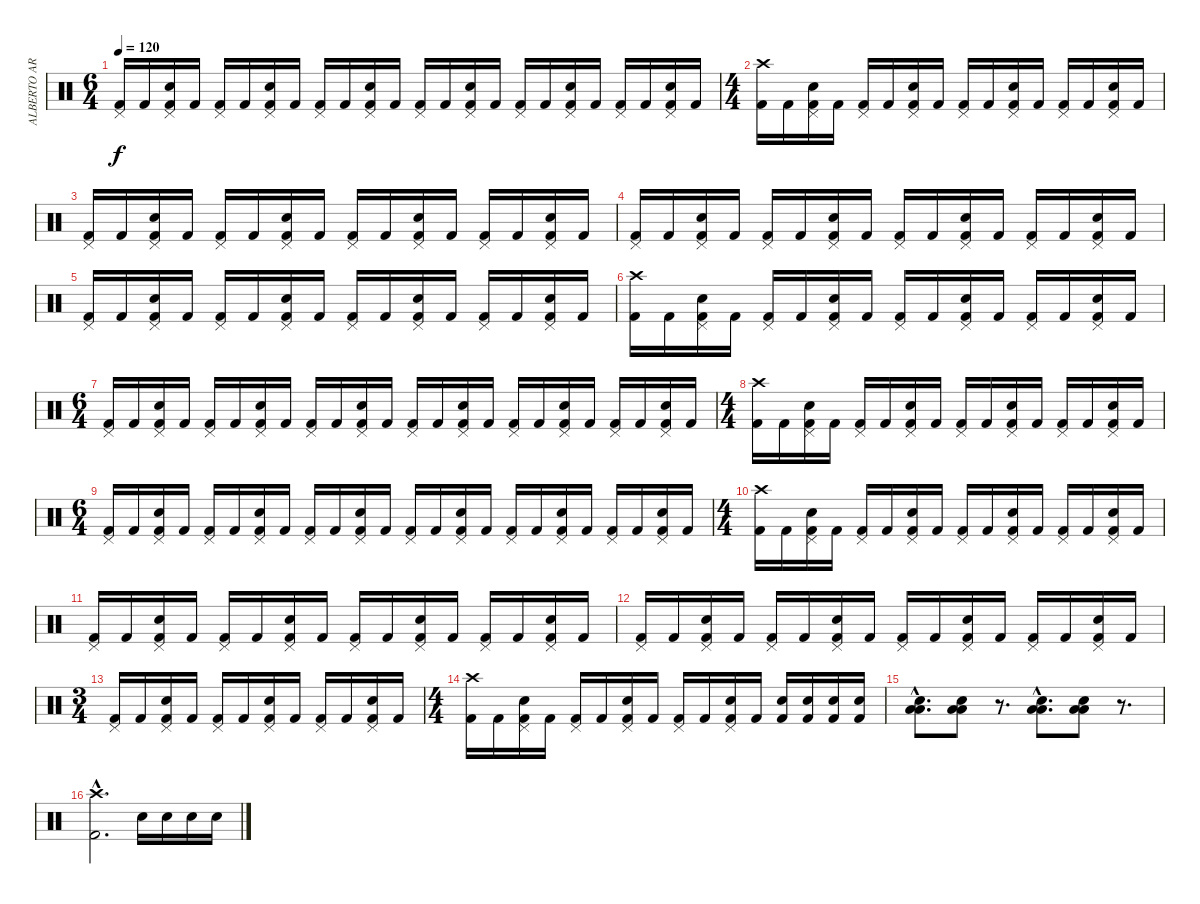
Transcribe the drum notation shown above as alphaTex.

\track ("ALBERTO ARDINES" "ALBERTO AR") {instrument percussion}
\staff {score}
\articulation defaults
\ts (6 4)
\tempo 120
\clef neutral
\ks c
("Pedal Hi-Hat (hit)" "Kick (hit) 2").16{dy f} "Kick (hit) 2".16 ("Pedal Hi-Hat (hit)" "Electric Snare (hit)" "Kick (hit) 2").16 "Kick (hit) 2".16 ("Pedal Hi-Hat (hit)" "Kick (hit) 2").16 "Kick (hit) 2".16 ("Pedal Hi-Hat (hit)" "Electric Snare (hit)" "Kick (hit) 2").16 "Kick (hit) 2".16 ("Pedal Hi-Hat (hit)" "Kick (hit) 2").16 "Kick (hit) 2".16 ("Pedal Hi-Hat (hit)" "Electric Snare (hit)" "Kick (hit) 2").16 "Kick (hit) 2".16 ("Pedal Hi-Hat (hit)" "Kick (hit) 2").16 "Kick (hit) 2".16 ("Pedal Hi-Hat (hit)" "Electric Snare (hit)" "Kick (hit) 2").16 "Kick (hit) 2".16 ("Pedal Hi-Hat (hit)" "Kick (hit) 2").16 "Kick (hit) 2".16 ("Pedal Hi-Hat (hit)" "Electric Snare (hit)" "Kick (hit) 2").16 "Kick (hit) 2".16 ("Pedal Hi-Hat (hit)" "Kick (hit) 2").16 "Kick (hit) 2".16 ("Pedal Hi-Hat (hit)" "Electric Snare (hit)" "Kick (hit) 2").16 "Kick (hit) 2".16 |
\ts (4 4)
("Crash high (hit)" "Kick (hit) 2").16 "Kick (hit) 2".16 ("Pedal Hi-Hat (hit)" "Electric Snare (hit)" "Kick (hit) 2").16 "Kick (hit) 2".16 ("Pedal Hi-Hat (hit)" "Kick (hit) 2").16 "Kick (hit) 2".16 ("Pedal Hi-Hat (hit)" "Electric Snare (hit)" "Kick (hit) 2").16 "Kick (hit) 2".16 ("Pedal Hi-Hat (hit)" "Kick (hit) 2").16 "Kick (hit) 2".16 ("Pedal Hi-Hat (hit)" "Electric Snare (hit)" "Kick (hit) 2").16 "Kick (hit) 2".16 ("Pedal Hi-Hat (hit)" "Kick (hit) 2").16 "Kick (hit) 2".16 ("Pedal Hi-Hat (hit)" "Electric Snare (hit)" "Kick (hit) 2").16 "Kick (hit) 2".16 |
("Pedal Hi-Hat (hit)" "Kick (hit) 2").16 "Kick (hit) 2".16 ("Pedal Hi-Hat (hit)" "Electric Snare (hit)" "Kick (hit) 2").16 "Kick (hit) 2".16 ("Pedal Hi-Hat (hit)" "Kick (hit) 2").16 "Kick (hit) 2".16 ("Pedal Hi-Hat (hit)" "Electric Snare (hit)" "Kick (hit) 2").16 "Kick (hit) 2".16 ("Pedal Hi-Hat (hit)" "Kick (hit) 2").16 "Kick (hit) 2".16 ("Pedal Hi-Hat (hit)" "Electric Snare (hit)" "Kick (hit) 2").16 "Kick (hit) 2".16 ("Pedal Hi-Hat (hit)" "Kick (hit) 2").16 "Kick (hit) 2".16 ("Pedal Hi-Hat (hit)" "Electric Snare (hit)" "Kick (hit) 2").16 "Kick (hit) 2".16 |
("Pedal Hi-Hat (hit)" "Kick (hit) 2").16 "Kick (hit) 2".16 ("Pedal Hi-Hat (hit)" "Electric Snare (hit)" "Kick (hit) 2").16 "Kick (hit) 2".16 ("Pedal Hi-Hat (hit)" "Kick (hit) 2").16 "Kick (hit) 2".16 ("Pedal Hi-Hat (hit)" "Electric Snare (hit)" "Kick (hit) 2").16 "Kick (hit) 2".16 ("Pedal Hi-Hat (hit)" "Kick (hit) 2").16 "Kick (hit) 2".16 ("Pedal Hi-Hat (hit)" "Electric Snare (hit)" "Kick (hit) 2").16 "Kick (hit) 2".16 ("Pedal Hi-Hat (hit)" "Kick (hit) 2").16 "Kick (hit) 2".16 ("Pedal Hi-Hat (hit)" "Electric Snare (hit)" "Kick (hit) 2").16 "Kick (hit) 2".16 |
("Pedal Hi-Hat (hit)" "Kick (hit) 2").16 "Kick (hit) 2".16 ("Pedal Hi-Hat (hit)" "Electric Snare (hit)" "Kick (hit) 2").16 "Kick (hit) 2".16 ("Pedal Hi-Hat (hit)" "Kick (hit) 2").16 "Kick (hit) 2".16 ("Pedal Hi-Hat (hit)" "Electric Snare (hit)" "Kick (hit) 2").16 "Kick (hit) 2".16 ("Pedal Hi-Hat (hit)" "Kick (hit) 2").16 "Kick (hit) 2".16 ("Pedal Hi-Hat (hit)" "Electric Snare (hit)" "Kick (hit) 2").16 "Kick (hit) 2".16 ("Pedal Hi-Hat (hit)" "Kick (hit) 2").16 "Kick (hit) 2".16 ("Pedal Hi-Hat (hit)" "Electric Snare (hit)" "Kick (hit) 2").16 "Kick (hit) 2".16 |
("Crash high (hit)" "Kick (hit) 2").16 "Kick (hit) 2".16 ("Pedal Hi-Hat (hit)" "Electric Snare (hit)" "Kick (hit) 2").16 "Kick (hit) 2".16 ("Pedal Hi-Hat (hit)" "Kick (hit) 2").16 "Kick (hit) 2".16 ("Pedal Hi-Hat (hit)" "Electric Snare (hit)" "Kick (hit) 2").16 "Kick (hit) 2".16 ("Pedal Hi-Hat (hit)" "Kick (hit) 2").16 "Kick (hit) 2".16 ("Pedal Hi-Hat (hit)" "Electric Snare (hit)" "Kick (hit) 2").16 "Kick (hit) 2".16 ("Pedal Hi-Hat (hit)" "Kick (hit) 2").16 "Kick (hit) 2".16 ("Pedal Hi-Hat (hit)" "Electric Snare (hit)" "Kick (hit) 2").16 "Kick (hit) 2".16 |
\ts (6 4)
("Pedal Hi-Hat (hit)" "Kick (hit) 2").16 "Kick (hit) 2".16 ("Pedal Hi-Hat (hit)" "Electric Snare (hit)" "Kick (hit) 2").16 "Kick (hit) 2".16 ("Pedal Hi-Hat (hit)" "Kick (hit) 2").16 "Kick (hit) 2".16 ("Pedal Hi-Hat (hit)" "Electric Snare (hit)" "Kick (hit) 2").16 "Kick (hit) 2".16 ("Pedal Hi-Hat (hit)" "Kick (hit) 2").16 "Kick (hit) 2".16 ("Pedal Hi-Hat (hit)" "Electric Snare (hit)" "Kick (hit) 2").16 "Kick (hit) 2".16 ("Pedal Hi-Hat (hit)" "Kick (hit) 2").16 "Kick (hit) 2".16 ("Pedal Hi-Hat (hit)" "Electric Snare (hit)" "Kick (hit) 2").16 "Kick (hit) 2".16 ("Pedal Hi-Hat (hit)" "Kick (hit) 2").16 "Kick (hit) 2".16 ("Pedal Hi-Hat (hit)" "Electric Snare (hit)" "Kick (hit) 2").16 "Kick (hit) 2".16 ("Pedal Hi-Hat (hit)" "Kick (hit) 2").16 "Kick (hit) 2".16 ("Pedal Hi-Hat (hit)" "Electric Snare (hit)" "Kick (hit) 2").16 "Kick (hit) 2".16 |
\ts (4 4)
("Crash high (hit)" "Kick (hit) 2").16 "Kick (hit) 2".16 ("Pedal Hi-Hat (hit)" "Electric Snare (hit)" "Kick (hit) 2").16 "Kick (hit) 2".16 ("Pedal Hi-Hat (hit)" "Kick (hit) 2").16 "Kick (hit) 2".16 ("Pedal Hi-Hat (hit)" "Electric Snare (hit)" "Kick (hit) 2").16 "Kick (hit) 2".16 ("Pedal Hi-Hat (hit)" "Kick (hit) 2").16 "Kick (hit) 2".16 ("Pedal Hi-Hat (hit)" "Electric Snare (hit)" "Kick (hit) 2").16 "Kick (hit) 2".16 ("Pedal Hi-Hat (hit)" "Kick (hit) 2").16 "Kick (hit) 2".16 ("Pedal Hi-Hat (hit)" "Electric Snare (hit)" "Kick (hit) 2").16 "Kick (hit) 2".16 |
\ts (6 4)
("Pedal Hi-Hat (hit)" "Kick (hit) 2").16 "Kick (hit) 2".16 ("Pedal Hi-Hat (hit)" "Electric Snare (hit)" "Kick (hit) 2").16 "Kick (hit) 2".16 ("Pedal Hi-Hat (hit)" "Kick (hit) 2").16 "Kick (hit) 2".16 ("Pedal Hi-Hat (hit)" "Electric Snare (hit)" "Kick (hit) 2").16 "Kick (hit) 2".16 ("Pedal Hi-Hat (hit)" "Kick (hit) 2").16 "Kick (hit) 2".16 ("Pedal Hi-Hat (hit)" "Electric Snare (hit)" "Kick (hit) 2").16 "Kick (hit) 2".16 ("Pedal Hi-Hat (hit)" "Kick (hit) 2").16 "Kick (hit) 2".16 ("Pedal Hi-Hat (hit)" "Electric Snare (hit)" "Kick (hit) 2").16 "Kick (hit) 2".16 ("Pedal Hi-Hat (hit)" "Kick (hit) 2").16 "Kick (hit) 2".16 ("Pedal Hi-Hat (hit)" "Electric Snare (hit)" "Kick (hit) 2").16 "Kick (hit) 2".16 ("Pedal Hi-Hat (hit)" "Kick (hit) 2").16 "Kick (hit) 2".16 ("Pedal Hi-Hat (hit)" "Electric Snare (hit)" "Kick (hit) 2").16 "Kick (hit) 2".16 |
\ts (4 4)
("Crash high (hit)" "Kick (hit) 2").16 "Kick (hit) 2".16 ("Pedal Hi-Hat (hit)" "Electric Snare (hit)" "Kick (hit) 2").16 "Kick (hit) 2".16 ("Pedal Hi-Hat (hit)" "Kick (hit) 2").16 "Kick (hit) 2".16 ("Pedal Hi-Hat (hit)" "Electric Snare (hit)" "Kick (hit) 2").16 "Kick (hit) 2".16 ("Pedal Hi-Hat (hit)" "Kick (hit) 2").16 "Kick (hit) 2".16 ("Pedal Hi-Hat (hit)" "Electric Snare (hit)" "Kick (hit) 2").16 "Kick (hit) 2".16 ("Pedal Hi-Hat (hit)" "Kick (hit) 2").16 "Kick (hit) 2".16 ("Pedal Hi-Hat (hit)" "Electric Snare (hit)" "Kick (hit) 2").16 "Kick (hit) 2".16 |
("Pedal Hi-Hat (hit)" "Kick (hit) 2").16 "Kick (hit) 2".16 ("Pedal Hi-Hat (hit)" "Electric Snare (hit)" "Kick (hit) 2").16 "Kick (hit) 2".16 ("Pedal Hi-Hat (hit)" "Kick (hit) 2").16 "Kick (hit) 2".16 ("Pedal Hi-Hat (hit)" "Electric Snare (hit)" "Kick (hit) 2").16 "Kick (hit) 2".16 ("Pedal Hi-Hat (hit)" "Kick (hit) 2").16 "Kick (hit) 2".16 ("Pedal Hi-Hat (hit)" "Electric Snare (hit)" "Kick (hit) 2").16 "Kick (hit) 2".16 ("Pedal Hi-Hat (hit)" "Kick (hit) 2").16 "Kick (hit) 2".16 ("Pedal Hi-Hat (hit)" "Electric Snare (hit)" "Kick (hit) 2").16 "Kick (hit) 2".16 |
("Pedal Hi-Hat (hit)" "Kick (hit) 2").16 "Kick (hit) 2".16 ("Pedal Hi-Hat (hit)" "Electric Snare (hit)" "Kick (hit) 2").16 "Kick (hit) 2".16 ("Pedal Hi-Hat (hit)" "Kick (hit) 2").16 "Kick (hit) 2".16 ("Pedal Hi-Hat (hit)" "Electric Snare (hit)" "Kick (hit) 2").16 "Kick (hit) 2".16 ("Pedal Hi-Hat (hit)" "Kick (hit) 2").16 "Kick (hit) 2".16 ("Pedal Hi-Hat (hit)" "Electric Snare (hit)" "Kick (hit) 2").16 "Kick (hit) 2".16 ("Pedal Hi-Hat (hit)" "Kick (hit) 2").16 "Kick (hit) 2".16 ("Pedal Hi-Hat (hit)" "Electric Snare (hit)" "Kick (hit) 2").16 "Kick (hit) 2".16 |
\ts (3 4)
("Pedal Hi-Hat (hit)" "Kick (hit) 2").16 "Kick (hit) 2".16 ("Pedal Hi-Hat (hit)" "Electric Snare (hit)" "Kick (hit) 2").16 "Kick (hit) 2".16 ("Pedal Hi-Hat (hit)" "Kick (hit) 2").16 "Kick (hit) 2".16 ("Pedal Hi-Hat (hit)" "Electric Snare (hit)" "Kick (hit) 2").16 "Kick (hit) 2".16 ("Pedal Hi-Hat (hit)" "Kick (hit) 2").16 "Kick (hit) 2".16 ("Pedal Hi-Hat (hit)" "Electric Snare (hit)" "Kick (hit) 2").16 "Kick (hit) 2".16 |
\ts (4 4)
("Crash high (hit)" "Kick (hit) 2").16 "Kick (hit) 2".16 ("Pedal Hi-Hat (hit)" "Electric Snare (hit)" "Kick (hit) 2").16 "Kick (hit) 2".16 ("Pedal Hi-Hat (hit)" "Kick (hit) 2").16 "Kick (hit) 2".16 ("Pedal Hi-Hat (hit)" "Electric Snare (hit)" "Kick (hit) 2").16 "Kick (hit) 2".16 ("Pedal Hi-Hat (hit)" "Kick (hit) 2").16 "Kick (hit) 2".16 ("Pedal Hi-Hat (hit)" "Electric Snare (hit)" "Kick (hit) 2").16 "Kick (hit) 2".16 ("Electric Snare (hit)" "Kick (hit) 2").16 ("Electric Snare (hit)" "Kick (hit) 2").16 ("Electric Snare (hit)" "Kick (hit) 2").16 ("Electric Snare (hit)" "Kick (hit) 2").16 |
("Low Tom (hit)"{hac} "Low Floor Tom (hit)"{hac} "Electric Snare (hit)"{hac}).8{d} ("Low Tom (hit)" "Low Floor Tom (hit)" "Electric Snare (hit)").8 r.8{d} ("Low Tom (hit)"{hac} "Low Floor Tom (hit)"{hac} "Electric Snare (hit)"{hac}).8{d} ("Low Tom (hit)" "Low Floor Tom (hit)" "Electric Snare (hit)").8 r.8{d} |
("Crash high (hit)"{hac} "Kick (hit) 2"{hac}).2{d} "Electric Snare (hit)".16 "Electric Snare (hit)".16 "Electric Snare (hit)".16 "Electric Snare (hit)".16
